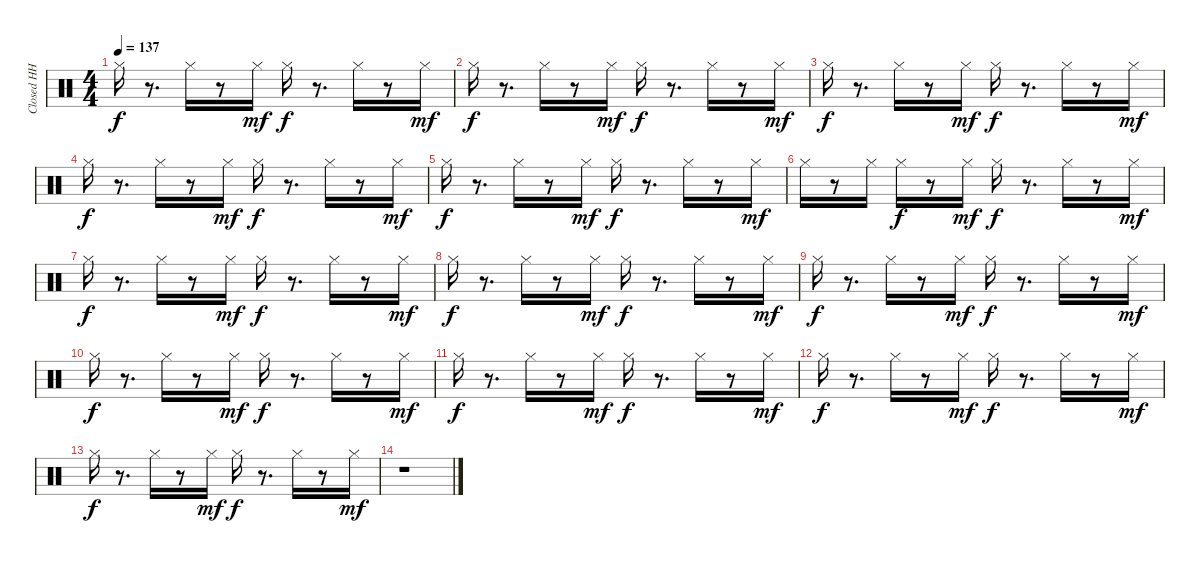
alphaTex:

\track ("Closed HH" "Closed HH") {instrument percussion}
\staff {score}
\articulation defaults
\ts (4 4)
\tempo 137
\clef neutral
\ks c "Hi-Hat (closed)".16{dy f}
r.8{d} "Hi-Hat (closed)".16 r.8 "Hi-Hat (closed)".16{dy mf} "Hi-Hat (closed)".16{dy f} r.8{d} "Hi-Hat (closed)".16 r.8 "Hi-Hat (closed)".16{dy mf} |
"Hi-Hat (closed)".16{dy f} r.8{d} "Hi-Hat (closed)".16 r.8 "Hi-Hat (closed)".16{dy mf} "Hi-Hat (closed)".16{dy f} r.8{d} "Hi-Hat (closed)".16 r.8 "Hi-Hat (closed)".16{dy mf} |
"Hi-Hat (closed)".16{dy f} r.8{d} "Hi-Hat (closed)".16 r.8 "Hi-Hat (closed)".16{dy mf} "Hi-Hat (closed)".16{dy f} r.8{d} "Hi-Hat (closed)".16 r.8 "Hi-Hat (closed)".16{dy mf} |
"Hi-Hat (closed)".16{dy f} r.8{d} "Hi-Hat (closed)".16 r.8 "Hi-Hat (closed)".16{dy mf} "Hi-Hat (closed)".16{dy f} r.8{d} "Hi-Hat (closed)".16 r.8 "Hi-Hat (closed)".16{dy mf} |
"Hi-Hat (closed)".16{dy f} r.8{d} "Hi-Hat (closed)".16 r.8 "Hi-Hat (closed)".16{dy mf} "Hi-Hat (closed)".16{dy f} r.8{d} "Hi-Hat (closed)".16 r.8 "Hi-Hat (closed)".16{dy mf} |
"Hi-Hat (closed)".16 r.8 "Hi-Hat (closed)".16 "Hi-Hat (closed)".16{dy f} r.8 "Hi-Hat (closed)".16{dy mf} "Hi-Hat (closed)".16{dy f} r.8{d} "Hi-Hat (closed)".16 r.8 "Hi-Hat (closed)".16{dy mf} |
"Hi-Hat (closed)".16{dy f} r.8{d} "Hi-Hat (closed)".16 r.8 "Hi-Hat (closed)".16{dy mf} "Hi-Hat (closed)".16{dy f} r.8{d} "Hi-Hat (closed)".16 r.8 "Hi-Hat (closed)".16{dy mf} |
"Hi-Hat (closed)".16{dy f} r.8{d} "Hi-Hat (closed)".16 r.8 "Hi-Hat (closed)".16{dy mf} "Hi-Hat (closed)".16{dy f} r.8{d} "Hi-Hat (closed)".16 r.8 "Hi-Hat (closed)".16{dy mf} |
"Hi-Hat (closed)".16{dy f} r.8{d} "Hi-Hat (closed)".16 r.8 "Hi-Hat (closed)".16{dy mf} "Hi-Hat (closed)".16{dy f} r.8{d} "Hi-Hat (closed)".16 r.8 "Hi-Hat (closed)".16{dy mf} |
"Hi-Hat (closed)".16{dy f} r.8{d} "Hi-Hat (closed)".16 r.8 "Hi-Hat (closed)".16{dy mf} "Hi-Hat (closed)".16{dy f} r.8{d} "Hi-Hat (closed)".16 r.8 "Hi-Hat (closed)".16{dy mf} |
"Hi-Hat (closed)".16{dy f} r.8{d} "Hi-Hat (closed)".16 r.8 "Hi-Hat (closed)".16{dy mf} "Hi-Hat (closed)".16{dy f} r.8{d} "Hi-Hat (closed)".16 r.8 "Hi-Hat (closed)".16{dy mf} |
"Hi-Hat (closed)".16{dy f} r.8{d} "Hi-Hat (closed)".16 r.8 "Hi-Hat (closed)".16{dy mf} "Hi-Hat (closed)".16{dy f} r.8{d} "Hi-Hat (closed)".16 r.8 "Hi-Hat (closed)".16{dy mf} |
"Hi-Hat (closed)".16{dy f} r.8{d} "Hi-Hat (closed)".16 r.8 "Hi-Hat (closed)".16{dy mf} "Hi-Hat (closed)".16{dy f} r.8{d} "Hi-Hat (closed)".16 r.8 "Hi-Hat (closed)".16{dy mf} |
r.1
